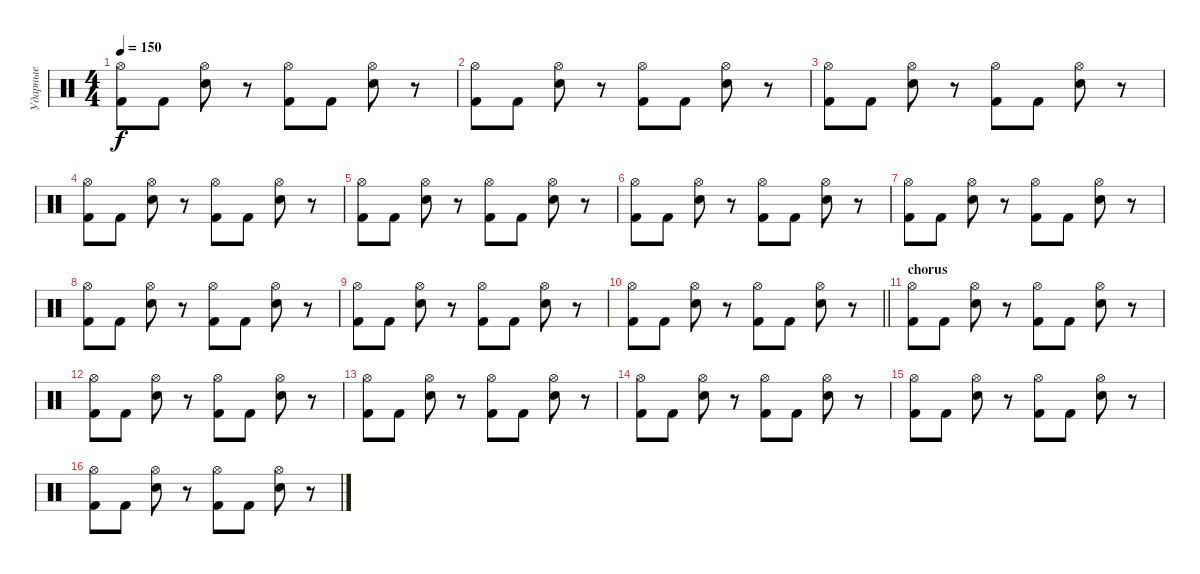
\track ("Ударные" "Ударные") {instrument percussion}
\staff {score}
\articulation defaults
\ts (4 4)
\tempo 150
\clef neutral
\ks c
("Kick (hit) 2" "Hi-Hat (open)").8{dy f} "Kick (hit) 2".8 ("Snare (hit) 2" "Hi-Hat (open)").8 r.8 ("Kick (hit) 2" "Hi-Hat (open)").8 "Kick (hit) 2".8 ("Snare (hit) 2" "Hi-Hat (open)").8 r.8 |
("Kick (hit) 2" "Hi-Hat (open)").8 "Kick (hit) 2".8 ("Snare (hit) 2" "Hi-Hat (open)").8 r.8 ("Kick (hit) 2" "Hi-Hat (open)").8 "Kick (hit) 2".8 ("Snare (hit) 2" "Hi-Hat (open)").8 r.8 |
("Kick (hit) 2" "Hi-Hat (open)").8 "Kick (hit) 2".8 ("Snare (hit) 2" "Hi-Hat (open)").8 r.8 ("Kick (hit) 2" "Hi-Hat (open)").8 "Kick (hit) 2".8 ("Snare (hit) 2" "Hi-Hat (open)").8 r.8 |
("Kick (hit) 2" "Hi-Hat (open)").8 "Kick (hit) 2".8 ("Snare (hit) 2" "Hi-Hat (open)").8 r.8 ("Kick (hit) 2" "Hi-Hat (open)").8 "Kick (hit) 2".8 ("Snare (hit) 2" "Hi-Hat (open)").8 r.8 |
("Kick (hit) 2" "Hi-Hat (open)").8 "Kick (hit) 2".8 ("Snare (hit) 2" "Hi-Hat (open)").8 r.8 ("Kick (hit) 2" "Hi-Hat (open)").8 "Kick (hit) 2".8 ("Snare (hit) 2" "Hi-Hat (open)").8 r.8 |
("Kick (hit) 2" "Hi-Hat (open)").8 "Kick (hit) 2".8 ("Snare (hit) 2" "Hi-Hat (open)").8 r.8 ("Kick (hit) 2" "Hi-Hat (open)").8 "Kick (hit) 2".8 ("Snare (hit) 2" "Hi-Hat (open)").8 r.8 |
("Kick (hit) 2" "Hi-Hat (open)").8 "Kick (hit) 2".8 ("Snare (hit) 2" "Hi-Hat (open)").8 r.8 ("Kick (hit) 2" "Hi-Hat (open)").8 "Kick (hit) 2".8 ("Snare (hit) 2" "Hi-Hat (open)").8 r.8 |
("Kick (hit) 2" "Hi-Hat (open)").8 "Kick (hit) 2".8 ("Snare (hit) 2" "Hi-Hat (open)").8 r.8 ("Kick (hit) 2" "Hi-Hat (open)").8 "Kick (hit) 2".8 ("Snare (hit) 2" "Hi-Hat (open)").8 r.8 |
("Kick (hit) 2" "Hi-Hat (open)").8 "Kick (hit) 2".8 ("Snare (hit) 2" "Hi-Hat (open)").8 r.8 ("Kick (hit) 2" "Hi-Hat (open)").8 "Kick (hit) 2".8 ("Snare (hit) 2" "Hi-Hat (open)").8 r.8 |
\barLineRight lightlight
("Kick (hit) 2" "Hi-Hat (open)").8 "Kick (hit) 2".8 ("Snare (hit) 2" "Hi-Hat (open)").8 r.8 ("Kick (hit) 2" "Hi-Hat (open)").8 "Kick (hit) 2".8 ("Snare (hit) 2" "Hi-Hat (open)").8 r.8 |
\section ("" "chorus")
("Kick (hit) 2" "Hi-Hat (open)").8 "Kick (hit) 2".8 ("Snare (hit) 2" "Hi-Hat (open)").8 r.8 ("Kick (hit) 2" "Hi-Hat (open)").8 "Kick (hit) 2".8 ("Snare (hit) 2" "Hi-Hat (open)").8 r.8 |
("Kick (hit) 2" "Hi-Hat (open)").8 "Kick (hit) 2".8 ("Snare (hit) 2" "Hi-Hat (open)").8 r.8 ("Kick (hit) 2" "Hi-Hat (open)").8 "Kick (hit) 2".8 ("Snare (hit) 2" "Hi-Hat (open)").8 r.8 |
("Kick (hit) 2" "Hi-Hat (open)").8 "Kick (hit) 2".8 ("Snare (hit) 2" "Hi-Hat (open)").8 r.8 ("Kick (hit) 2" "Hi-Hat (open)").8 "Kick (hit) 2".8 ("Snare (hit) 2" "Hi-Hat (open)").8 r.8 |
("Kick (hit) 2" "Hi-Hat (open)").8 "Kick (hit) 2".8 ("Snare (hit) 2" "Hi-Hat (open)").8 r.8 ("Kick (hit) 2" "Hi-Hat (open)").8 "Kick (hit) 2".8 ("Snare (hit) 2" "Hi-Hat (open)").8 r.8 |
("Kick (hit) 2" "Hi-Hat (open)").8 "Kick (hit) 2".8 ("Snare (hit) 2" "Hi-Hat (open)").8 r.8 ("Kick (hit) 2" "Hi-Hat (open)").8 "Kick (hit) 2".8 ("Snare (hit) 2" "Hi-Hat (open)").8 r.8 |
("Kick (hit) 2" "Hi-Hat (open)").8 "Kick (hit) 2".8 ("Snare (hit) 2" "Hi-Hat (open)").8 r.8 ("Kick (hit) 2" "Hi-Hat (open)").8 "Kick (hit) 2".8 ("Snare (hit) 2" "Hi-Hat (open)").8 r.8
